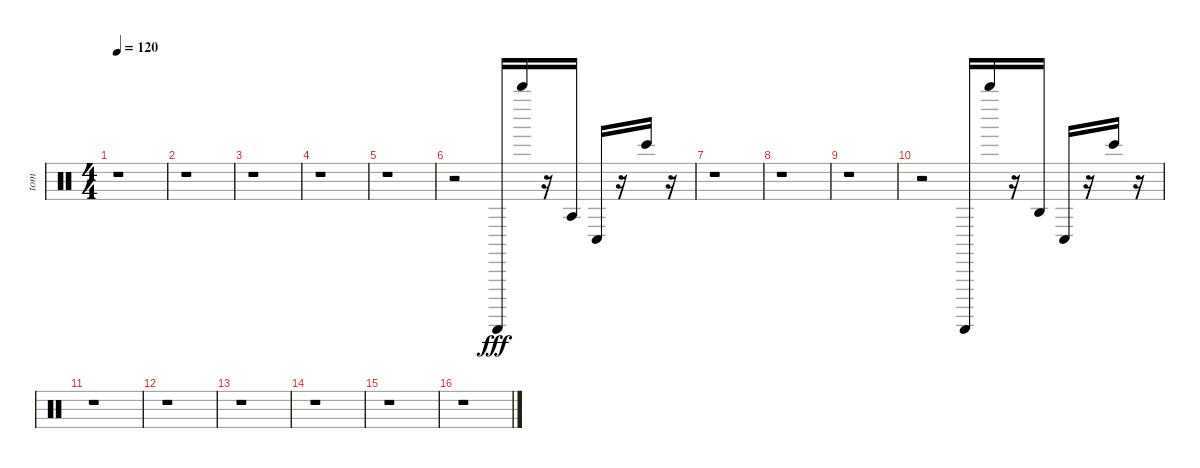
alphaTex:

\track ("tom" "tom") {instrument percussion}
\staff {score}
\articulation defaults
\ts (4 4)
\tempo 120
\clef neutral
\ks c
r.1{dy fff} |
r.1 |
r.1 |
r.1 |
r.1 |
r.2 "Guiro (scrap-return)".16 "Whistle high (hit)".16{balance 15} r.16 "Agogo tow (hit)".16{balance 11} "Conga low (hit)".16{balance 8} r.16 "Bongo High (hit)".16{balance 2} r.16 |
r.1 |
r.1 |
r.1 |
r.2 "Guiro (scrap-return)".16{balance 0} "Whistle high (hit)".16{balance 2} r.16 "Agogo high (hit)".16{balance 5} "Conga low (hit)".16{balance 9} r.16 "Bongo High (hit)".16{balance 13} r.16 |
r.1 |
r.1 |
r.1 |
r.1 |
r.1 |
r.1
